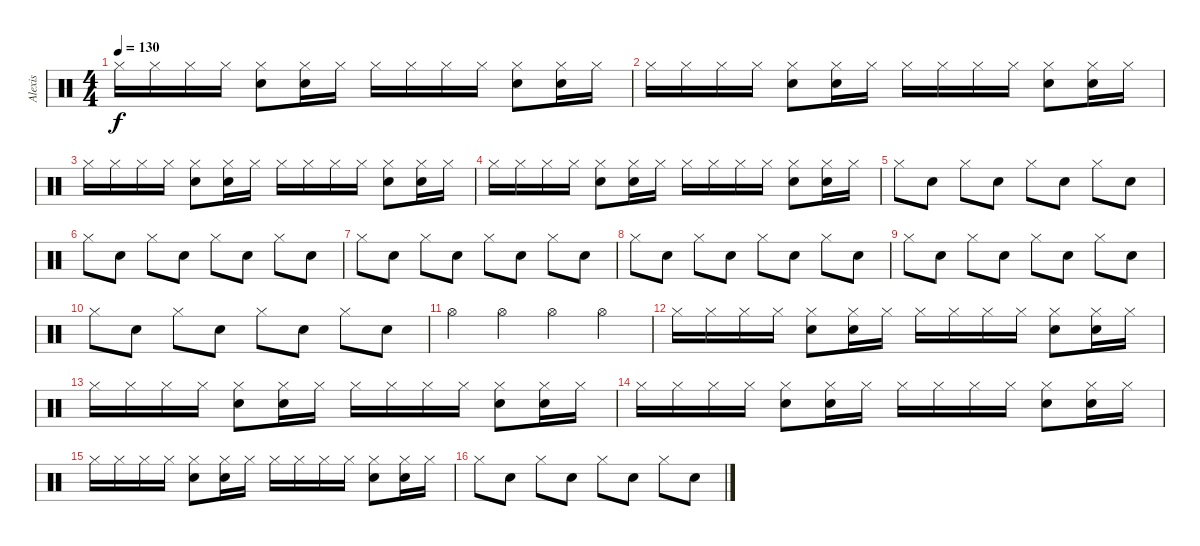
\track ("Alexis" "Alexis") {instrument percussion}
\staff {score}
\articulation defaults
\ts (4 4)
\tempo 130
\clef neutral
\ks c "Hi-Hat (closed)".16{dy f} "Hi-Hat (closed)".16 "Hi-Hat (closed)".16 "Hi-Hat (closed)".16
("Hi-Hat (closed)" "Snare (hit) 2").8 ("Hi-Hat (closed)" "Snare (hit) 2").16 "Hi-Hat (closed)".16 "Hi-Hat (closed)".16 "Hi-Hat (closed)".16 "Hi-Hat (closed)".16 "Hi-Hat (closed)".16 ("Hi-Hat (closed)" "Snare (hit) 2").8 ("Hi-Hat (closed)" "Snare (hit) 2").16 "Hi-Hat (closed)".16 |
"Hi-Hat (closed)".16 "Hi-Hat (closed)".16 "Hi-Hat (closed)".16 "Hi-Hat (closed)".16 ("Hi-Hat (closed)" "Snare (hit) 2").8 ("Hi-Hat (closed)" "Snare (hit) 2").16 "Hi-Hat (closed)".16 "Hi-Hat (closed)".16 "Hi-Hat (closed)".16 "Hi-Hat (closed)".16 "Hi-Hat (closed)".16 ("Hi-Hat (closed)" "Snare (hit) 2").8 ("Hi-Hat (closed)" "Snare (hit) 2").16 "Hi-Hat (closed)".16 |
"Hi-Hat (closed)".16 "Hi-Hat (closed)".16 "Hi-Hat (closed)".16 "Hi-Hat (closed)".16 ("Hi-Hat (closed)" "Snare (hit) 2").8 ("Hi-Hat (closed)" "Snare (hit) 2").16 "Hi-Hat (closed)".16 "Hi-Hat (closed)".16 "Hi-Hat (closed)".16 "Hi-Hat (closed)".16 "Hi-Hat (closed)".16 ("Hi-Hat (closed)" "Snare (hit) 2").8 ("Hi-Hat (closed)" "Snare (hit) 2").16 "Hi-Hat (closed)".16 |
"Hi-Hat (closed)".16 "Hi-Hat (closed)".16 "Hi-Hat (closed)".16 "Hi-Hat (closed)".16 ("Hi-Hat (closed)" "Snare (hit) 2").8 ("Hi-Hat (closed)" "Snare (hit) 2").16 "Hi-Hat (closed)".16 "Hi-Hat (closed)".16 "Hi-Hat (closed)".16 "Hi-Hat (closed)".16 "Hi-Hat (closed)".16 ("Hi-Hat (closed)" "Snare (hit) 2").8 ("Hi-Hat (closed)" "Snare (hit) 2").16 "Hi-Hat (closed)".16 |
"Hi-Hat (closed)".8 "Snare (hit) 2".8 "Hi-Hat (closed)".8 "Snare (hit) 2".8 "Hi-Hat (closed)".8 "Snare (hit) 2".8 "Hi-Hat (closed)".8 "Snare (hit) 2".8 |
"Hi-Hat (closed)".8 "Snare (hit) 2".8 "Hi-Hat (closed)".8 "Snare (hit) 2".8 "Hi-Hat (closed)".8 "Snare (hit) 2".8 "Hi-Hat (closed)".8 "Snare (hit) 2".8 |
"Hi-Hat (closed)".8 "Snare (hit) 2".8 "Hi-Hat (closed)".8 "Snare (hit) 2".8 "Hi-Hat (closed)".8 "Snare (hit) 2".8 "Hi-Hat (closed)".8 "Snare (hit) 2".8 |
"Hi-Hat (closed)".8 "Snare (hit) 2".8 "Hi-Hat (closed)".8 "Snare (hit) 2".8 "Hi-Hat (closed)".8 "Snare (hit) 2".8 "Hi-Hat (closed)".8 "Snare (hit) 2".8 |
"Hi-Hat (closed)".8 "Snare (hit) 2".8 "Hi-Hat (closed)".8 "Snare (hit) 2".8 "Hi-Hat (closed)".8 "Snare (hit) 2".8 "Hi-Hat (closed)".8 "Snare (hit) 2".8 |
"Hi-Hat (closed)".8 "Snare (hit) 2".8 "Hi-Hat (closed)".8 "Snare (hit) 2".8 "Hi-Hat (closed)".8 "Snare (hit) 2".8 "Hi-Hat (closed)".8 "Snare (hit) 2".8 |
"Hi-Hat (open)".4 "Hi-Hat (open)".4 "Hi-Hat (open)".4 "Hi-Hat (open)".4 |
"Hi-Hat (closed)".16 "Hi-Hat (closed)".16 "Hi-Hat (closed)".16 "Hi-Hat (closed)".16 ("Hi-Hat (closed)" "Snare (hit) 2").8 ("Hi-Hat (closed)" "Snare (hit) 2").16 "Hi-Hat (closed)".16 "Hi-Hat (closed)".16 "Hi-Hat (closed)".16 "Hi-Hat (closed)".16 "Hi-Hat (closed)".16 ("Hi-Hat (closed)" "Snare (hit) 2").8 ("Hi-Hat (closed)" "Snare (hit) 2").16 "Hi-Hat (closed)".16 |
"Hi-Hat (closed)".16 "Hi-Hat (closed)".16 "Hi-Hat (closed)".16 "Hi-Hat (closed)".16 ("Hi-Hat (closed)" "Snare (hit) 2").8 ("Hi-Hat (closed)" "Snare (hit) 2").16 "Hi-Hat (closed)".16 "Hi-Hat (closed)".16 "Hi-Hat (closed)".16 "Hi-Hat (closed)".16 "Hi-Hat (closed)".16 ("Hi-Hat (closed)" "Snare (hit) 2").8 ("Hi-Hat (closed)" "Snare (hit) 2").16 "Hi-Hat (closed)".16 |
"Hi-Hat (closed)".16 "Hi-Hat (closed)".16 "Hi-Hat (closed)".16 "Hi-Hat (closed)".16 ("Hi-Hat (closed)" "Snare (hit) 2").8 ("Hi-Hat (closed)" "Snare (hit) 2").16 "Hi-Hat (closed)".16 "Hi-Hat (closed)".16 "Hi-Hat (closed)".16 "Hi-Hat (closed)".16 "Hi-Hat (closed)".16 ("Hi-Hat (closed)" "Snare (hit) 2").8 ("Hi-Hat (closed)" "Snare (hit) 2").16 "Hi-Hat (closed)".16 |
"Hi-Hat (closed)".16 "Hi-Hat (closed)".16 "Hi-Hat (closed)".16 "Hi-Hat (closed)".16 ("Hi-Hat (closed)" "Snare (hit) 2").8 ("Hi-Hat (closed)" "Snare (hit) 2").16 "Hi-Hat (closed)".16 "Hi-Hat (closed)".16 "Hi-Hat (closed)".16 "Hi-Hat (closed)".16 "Hi-Hat (closed)".16 ("Hi-Hat (closed)" "Snare (hit) 2").8 ("Hi-Hat (closed)" "Snare (hit) 2").16 "Hi-Hat (closed)".16 |
"Hi-Hat (closed)".8 "Snare (hit) 2".8 "Hi-Hat (closed)".8 "Snare (hit) 2".8 "Hi-Hat (closed)".8 "Snare (hit) 2".8 "Hi-Hat (closed)".8 "Snare (hit) 2".8
